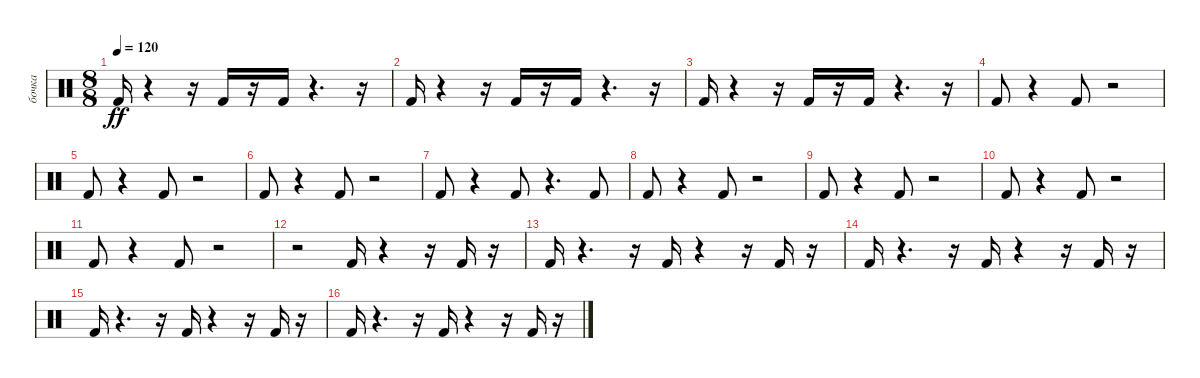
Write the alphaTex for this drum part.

\track ("бочка" "бочка") {instrument percussion}
\staff {score}
\articulation defaults
\ts (8 8)
\tempo 120
\clef neutral
\ks c "Kick (hit) 2".16{dy ff}
r.4 r.16 "Kick (hit) 2".16 r.16 "Kick (hit) 2".16 r.4{d} r.16 |
"Kick (hit) 2".16 r.4 r.16 "Kick (hit) 2".16 r.16 "Kick (hit) 2".16 r.4{d} r.16 |
"Kick (hit) 2".16 r.4 r.16 "Kick (hit) 2".16 r.16 "Kick (hit) 2".16 r.4{d} r.16 |
"Kick (hit) 2".8 r.4 "Kick (hit) 2".8 r.2 |
"Kick (hit) 2".8 r.4 "Kick (hit) 2".8 r.2 |
"Kick (hit) 2".8 r.4 "Kick (hit) 2".8 r.2 |
"Kick (hit) 2".8 r.4 "Kick (hit) 2".8 r.4{d} "Kick (hit) 2".8 |
"Kick (hit) 2".8 r.4 "Kick (hit) 2".8 r.2 |
"Kick (hit) 2".8 r.4 "Kick (hit) 2".8 r.2 |
"Kick (hit) 2".8 r.4 "Kick (hit) 2".8 r.2 |
"Kick (hit) 2".8 r.4 "Kick (hit) 2".8 r.2 |
r.2 "Kick (hit) 2".16 r.4 r.16 "Kick (hit) 2".16 r.16 |
"Kick (hit) 2".16 r.4{d} r.16 "Kick (hit) 2".16 r.4 r.16 "Kick (hit) 2".16 r.16 |
"Kick (hit) 2".16 r.4{d} r.16 "Kick (hit) 2".16 r.4 r.16 "Kick (hit) 2".16 r.16 |
"Kick (hit) 2".16 r.4{d} r.16 "Kick (hit) 2".16 r.4 r.16 "Kick (hit) 2".16 r.16 |
"Kick (hit) 2".16 r.4{d} r.16 "Kick (hit) 2".16 r.4 r.16 "Kick (hit) 2".16 r.16
